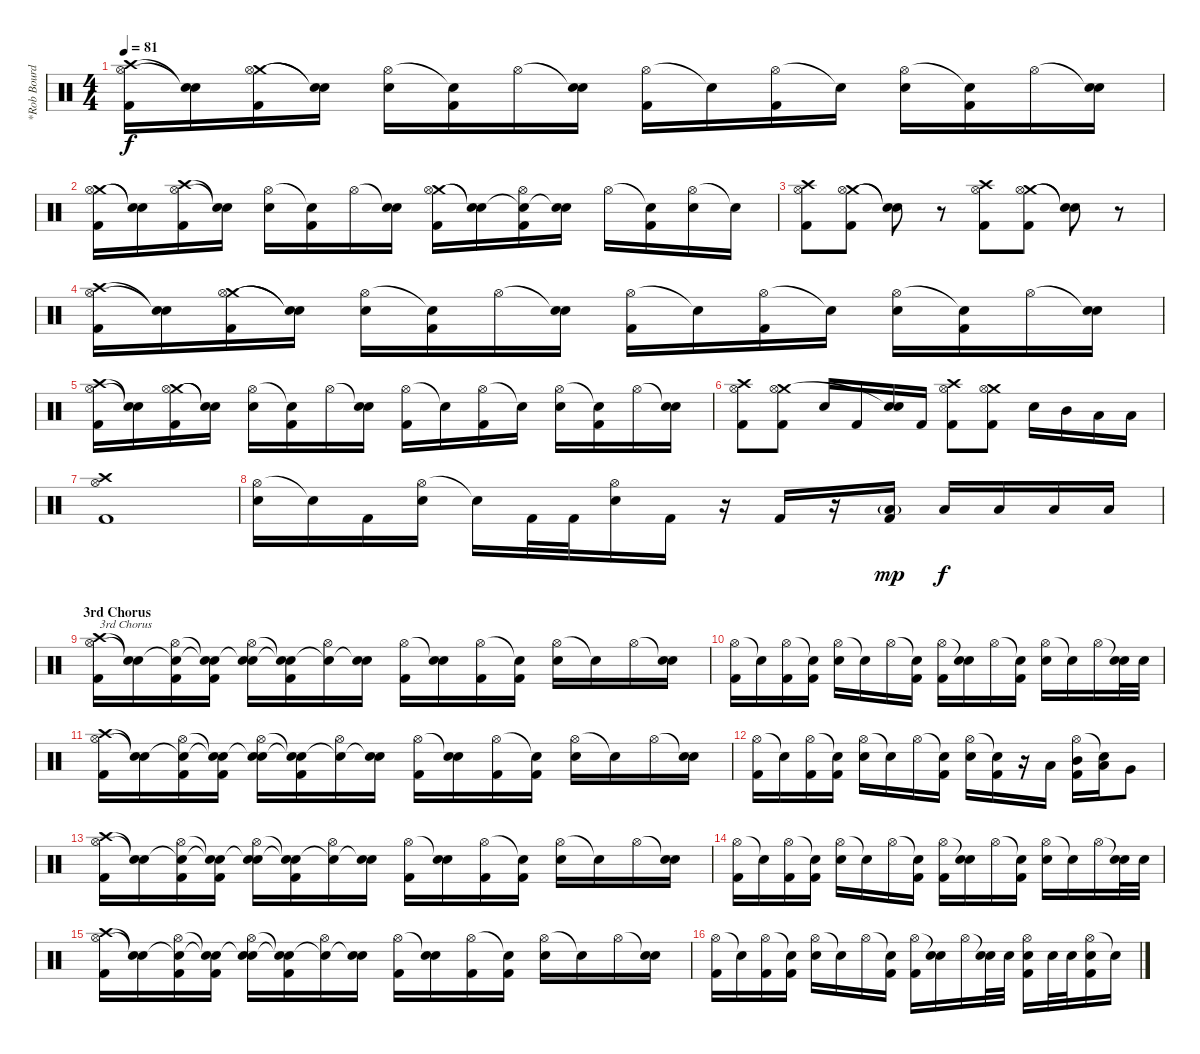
\track ("*Rob Bourdon (Drums)" "*Rob Bourd") {instrument percussion}
\staff {score}
\articulation defaults
\ts (4 4)
\tempo 81
\clef neutral
\ks c
("Crash high (hit)" "Hi-Hat (open)" "Kick (hit) 2").16{dy f} ("Snare (hit)"{t} "Snare (hit)"{t}).16 ("Crash medium (hit)" "Hi-Hat (open)" "Kick (hit) 2").16 ("Snare (hit)"{t} "Snare (hit)"{t}).16 ("Hi-Hat (open)" "Electric Snare (hit)").16 ("Snare (hit)"{t} "Kick (hit) 2").16 "Hi-Hat (open)".16 ("Snare (hit)"{t} "Electric Snare (hit)").16 ("Hi-Hat (open)" "Kick (hit) 2").16 "Snare (hit)"{t}.16 ("Hi-Hat (open)" "Kick (hit) 2").16 "Snare (hit)"{t}.16 ("Hi-Hat (open)" "Electric Snare (hit)").16 ("Snare (hit)"{t} "Kick (hit) 2").16 "Hi-Hat (open)".16 ("Snare (hit)"{t} "Electric Snare (hit)").16 |
("Crash medium (hit)" "Hi-Hat (open)" "Kick (hit) 2").16 ("Snare (hit)"{t} "Snare (hit)"{t}).16 ("Crash high (hit)" "Hi-Hat (open)" "Kick (hit) 2").16 ("Snare (hit)"{t} "Snare (hit)"{t}).16 ("Hi-Hat (open)" "Electric Snare (hit)").16 ("Snare (hit)"{t} "Kick (hit) 2").16 "Hi-Hat (open)".16 ("Snare (hit)"{t} "Electric Snare (hit)").16 ("Crash medium (hit)" "Hi-Hat (open)" "Kick (hit) 2").16 ("Snare (hit)"{t} "Snare (hit)"{t}).16 ("Snare (hit)"{t} "Hi-Hat (open)" "Kick (hit) 2").16 ("Snare (hit)"{t} "Electric Snare (hit)").16 "Hi-Hat (open)".16 ("Snare (hit)"{t} "Kick (hit) 2").16 ("Hi-Hat (open)" "Electric Snare (hit)").16 "Snare (hit)"{t}.16 |
("Crash high (hit)" "Hi-Hat (open)" "Kick (hit) 2").8 ("Crash medium (hit)" "Hi-Hat (open)" "Kick (hit) 2").8 ("Snare (hit)"{t} "Snare (hit)"{t}).8 r.8 ("Crash high (hit)" "Hi-Hat (open)" "Kick (hit) 2").8 ("Crash medium (hit)" "Hi-Hat (open)" "Kick (hit) 2").8 ("Snare (hit)"{t} "Snare (hit)"{t}).8 r.8 |
("Crash high (hit)" "Hi-Hat (open)" "Kick (hit) 2").16 ("Snare (hit)"{t} "Snare (hit)"{t}).16 ("Crash medium (hit)" "Hi-Hat (open)" "Kick (hit) 2").16 ("Snare (hit)"{t} "Snare (hit)"{t}).16 ("Hi-Hat (open)" "Electric Snare (hit)").16 ("Snare (hit)"{t} "Kick (hit) 2").16 "Hi-Hat (open)".16 ("Snare (hit)"{t} "Electric Snare (hit)").16 ("Hi-Hat (open)" "Kick (hit) 2").16 "Snare (hit)"{t}.16 ("Hi-Hat (open)" "Kick (hit) 2").16 "Snare (hit)"{t}.16 ("Hi-Hat (open)" "Electric Snare (hit)").16 ("Snare (hit)"{t} "Kick (hit) 2").16 "Hi-Hat (open)".16 ("Snare (hit)"{t} "Electric Snare (hit)").16 |
("Crash high (hit)" "Hi-Hat (open)" "Kick (hit) 2").16 ("Snare (hit)"{t} "Snare (hit)"{t}).16 ("Crash medium (hit)" "Hi-Hat (open)" "Kick (hit) 2").16 ("Snare (hit)"{t} "Snare (hit)"{t}).16 ("Hi-Hat (open)" "Electric Snare (hit)").16 ("Snare (hit)"{t} "Kick (hit) 2").16 "Hi-Hat (open)".16 ("Snare (hit)"{t} "Electric Snare (hit)").16 ("Hi-Hat (open)" "Kick (hit) 2").16 "Snare (hit)"{t}.16 ("Hi-Hat (open)" "Kick (hit) 2").16 "Snare (hit)"{t}.16 ("Hi-Hat (open)" "Electric Snare (hit)").16 ("Snare (hit)"{t} "Kick (hit) 2").16 "Hi-Hat (open)".16 ("Snare (hit)"{t} "Electric Snare (hit)").16 |
("Crash high (hit)" "Hi-Hat (open)" "Kick (hit) 2").8 ("Crash medium (hit)" "Hi-Hat (open)" "Kick (hit) 2").8 "Electric Snare (hit)".16 "Kick (hit) 2".16 ("Electric Snare (hit)" "Snare (hit)"{t}).16 "Kick (hit) 2".16 ("Crash high (hit)" "Hi-Hat (open)" "Kick (hit) 2").8 ("Crash medium (hit)" "Hi-Hat (open)" "Kick (hit) 2").8 "Electric Snare (hit)".16 "Mid Tom (hit)".16 "Low Tom (hit)".16 "Low Floor Tom (hit)".16 |
("Crash high (hit)" "Hi-Hat (open)" "Kick (hit) 2").1 |
("Hi-Hat (open)" "Electric Snare (hit)").16 "Snare (hit)"{t}.16 "Kick (hit) 2".16 ("Hi-Hat (open)" "Electric Snare (hit)").16 "Snare (hit)"{t}.16 "Kick (hit) 2".32 "Kick (hit) 2".32 ("Hi-Hat (open)" "Electric Snare (hit)").16 "Kick (hit) 2".16 r.16 "Kick (hit) 2".16 r.16 ("Low Tom (hit)"{g} "Kick (hit) 2").16{dy mp} "Low Tom (hit)".16{dy f} "Low Tom (hit)".16 "Low Tom (hit)".16 "Low Tom (hit)".16 |
\section ("" "3rd Chorus")
("Crash high (hit)" "Hi-Hat (open)" "Kick (hit) 2").16{txt "3rd Chorus" volume 12} ("Snare (hit)"{t} "Snare (hit)"{t}).16 ("Snare (hit)"{t} "Hi-Hat (open)" "Kick (hit) 2").16 ("Snare (hit)"{t} "Snare (hit)"{t} "Kick (hit) 2").16 ("Snare (hit)"{t} "Hi-Hat (open)" "Electric Snare (hit)").16 ("Snare (hit)"{t} "Snare (hit)"{t} "Kick (hit) 2").16 ("Snare (hit)"{t} "Hi-Hat (open)").16 ("Snare (hit)"{t} "Electric Snare (hit)").16 ("Hi-Hat (open)" "Kick (hit) 2").16 ("Snare (hit)"{t} "Electric Snare (hit)").16 ("Hi-Hat (open)" "Kick (hit) 2").16 ("Snare (hit)"{t} "Kick (hit) 2").16 ("Hi-Hat (open)" "Electric Snare (hit)").16 "Snare (hit)"{t}.16 "Hi-Hat (open)".16 ("Snare (hit)"{t} "Electric Snare (hit)").16 |
("Hi-Hat (open)" "Kick (hit) 2").16 "Snare (hit)"{t}.16 ("Hi-Hat (open)" "Kick (hit) 2").16 ("Snare (hit)"{t} "Kick (hit) 2").16 ("Hi-Hat (open)" "Electric Snare (hit)").16 "Snare (hit)"{t}.16 "Hi-Hat (open)".16 ("Snare (hit)"{t} "Kick (hit) 2").16 ("Hi-Hat (open)" "Kick (hit) 2").16 ("Snare (hit)"{t} "Electric Snare (hit)").16 "Hi-Hat (open)".16 ("Snare (hit)"{t} "Kick (hit) 2").16 ("Hi-Hat (open)" "Electric Snare (hit)").16 "Snare (hit)"{t}.16 "Hi-Hat (open)".16 ("Snare (hit)"{t} "Electric Snare (hit)").32 "Electric Snare (hit)".32 |
("Crash high (hit)" "Hi-Hat (open)" "Kick (hit) 2").16 ("Snare (hit)"{t} "Snare (hit)"{t}).16 ("Snare (hit)"{t} "Hi-Hat (open)" "Kick (hit) 2").16 ("Snare (hit)"{t} "Snare (hit)"{t} "Kick (hit) 2").16 ("Snare (hit)"{t} "Hi-Hat (open)" "Electric Snare (hit)").16 ("Snare (hit)"{t} "Snare (hit)"{t} "Kick (hit) 2").16 ("Snare (hit)"{t} "Hi-Hat (open)").16 ("Snare (hit)"{t} "Electric Snare (hit)").16 ("Hi-Hat (open)" "Kick (hit) 2").16 ("Snare (hit)"{t} "Electric Snare (hit)").16 ("Hi-Hat (open)" "Kick (hit) 2").16 ("Snare (hit)"{t} "Kick (hit) 2").16 ("Hi-Hat (open)" "Electric Snare (hit)").16 "Snare (hit)"{t}.16 "Hi-Hat (open)".16 ("Snare (hit)"{t} "Electric Snare (hit)").16 |
("Hi-Hat (open)" "Kick (hit) 2").16 "Snare (hit)"{t}.16 ("Hi-Hat (open)" "Kick (hit) 2").16 ("Snare (hit)"{t} "Kick (hit) 2").16 ("Hi-Hat (open)" "Electric Snare (hit)").16 "Snare (hit)"{t}.16 "Hi-Hat (open)".16 ("Snare (hit)"{t} "Kick (hit) 2").16 ("Hi-Hat (open)" "Electric Snare (hit)").16 ("Snare (hit)"{t} "Kick (hit) 2").16 r.16 "Low Tom (hit)".16 ("Hi-Hat (open)" "Mid Tom (hit)" "Kick (hit) 2").16 ("Snare (hit)"{t} "Low Tom (hit)").16 "Very Low Tom (hit)".8 |
("Crash high (hit)" "Hi-Hat (open)" "Kick (hit) 2").16 ("Snare (hit)"{t} "Snare (hit)"{t}).16 ("Snare (hit)"{t} "Hi-Hat (open)" "Kick (hit) 2").16 ("Snare (hit)"{t} "Snare (hit)"{t} "Kick (hit) 2").16 ("Snare (hit)"{t} "Hi-Hat (open)" "Electric Snare (hit)").16 ("Snare (hit)"{t} "Snare (hit)"{t} "Kick (hit) 2").16 ("Snare (hit)"{t} "Hi-Hat (open)").16 ("Snare (hit)"{t} "Electric Snare (hit)").16 ("Hi-Hat (open)" "Kick (hit) 2").16 ("Snare (hit)"{t} "Electric Snare (hit)").16 ("Hi-Hat (open)" "Kick (hit) 2").16 ("Snare (hit)"{t} "Kick (hit) 2").16 ("Hi-Hat (open)" "Electric Snare (hit)").16 "Snare (hit)"{t}.16 "Hi-Hat (open)".16 ("Snare (hit)"{t} "Electric Snare (hit)").16 |
("Hi-Hat (open)" "Kick (hit) 2").16 "Snare (hit)"{t}.16 ("Hi-Hat (open)" "Kick (hit) 2").16 ("Snare (hit)"{t} "Kick (hit) 2").16 ("Hi-Hat (open)" "Electric Snare (hit)").16 "Snare (hit)"{t}.16 "Hi-Hat (open)".16 ("Snare (hit)"{t} "Kick (hit) 2").16 ("Hi-Hat (open)" "Kick (hit) 2").16 ("Snare (hit)"{t} "Electric Snare (hit)").16 "Hi-Hat (open)".16 ("Snare (hit)"{t} "Kick (hit) 2").16 ("Hi-Hat (open)" "Electric Snare (hit)").16 "Snare (hit)"{t}.16 "Hi-Hat (open)".16 ("Snare (hit)"{t} "Electric Snare (hit)").32 "Electric Snare (hit)".32 |
("Crash high (hit)" "Hi-Hat (open)" "Kick (hit) 2").16 ("Snare (hit)"{t} "Snare (hit)"{t}).16 ("Snare (hit)"{t} "Hi-Hat (open)" "Kick (hit) 2").16 ("Snare (hit)"{t} "Snare (hit)"{t} "Kick (hit) 2").16 ("Snare (hit)"{t} "Hi-Hat (open)" "Electric Snare (hit)").16 ("Snare (hit)"{t} "Snare (hit)"{t} "Kick (hit) 2").16 ("Snare (hit)"{t} "Hi-Hat (open)").16 ("Snare (hit)"{t} "Electric Snare (hit)").16 ("Hi-Hat (open)" "Kick (hit) 2").16 ("Snare (hit)"{t} "Electric Snare (hit)").16 ("Hi-Hat (open)" "Kick (hit) 2").16 ("Snare (hit)"{t} "Kick (hit) 2").16 ("Hi-Hat (open)" "Electric Snare (hit)").16 "Snare (hit)"{t}.16 "Hi-Hat (open)".16 ("Snare (hit)"{t} "Electric Snare (hit)").16 |
("Hi-Hat (open)" "Kick (hit) 2").16 "Snare (hit)"{t}.16 ("Hi-Hat (open)" "Kick (hit) 2").16 ("Snare (hit)"{t} "Kick (hit) 2").16 ("Hi-Hat (open)" "Electric Snare (hit)").16 "Snare (hit)"{t}.16 "Hi-Hat (open)".16 ("Snare (hit)"{t} "Kick (hit) 2").16 ("Hi-Hat (open)" "Kick (hit) 2").16 ("Snare (hit)"{t} "Electric Snare (hit)").16 "Hi-Hat (open)".16 ("Snare (hit)"{t} "Electric Snare (hit)").32 "Electric Snare (hit)".32 ("Hi-Hat (open)" "Electric Snare (hit)" "Kick (hit) 2").16 "Electric Snare (hit)".32 "Electric Snare (hit)".32 ("Hi-Hat (open)" "Electric Snare (hit)" "Kick (hit) 2").16 "Snare (hit)"{t}.16
